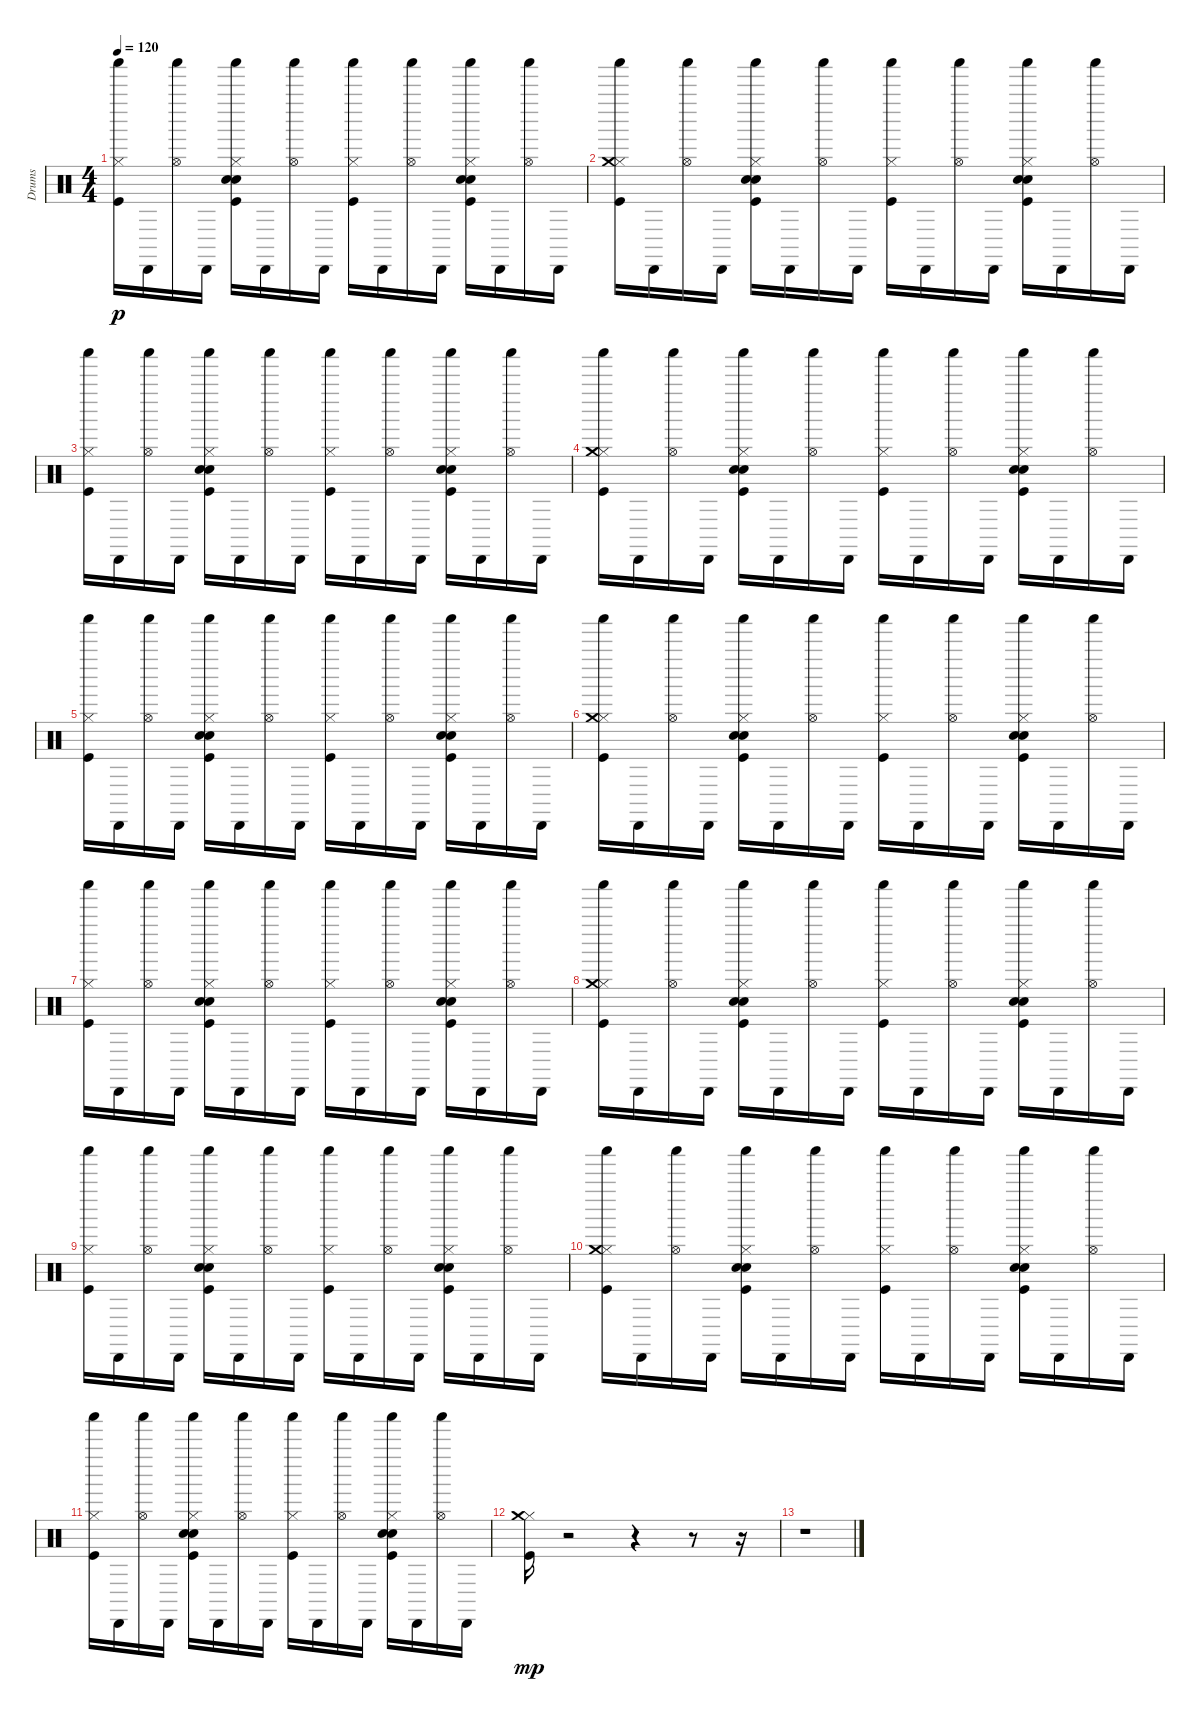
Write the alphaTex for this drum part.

\track ("Drums" "Drums") {instrument percussion}
\staff {score}
\articulation defaults
\ts (4 4)
\tempo 120
\clef neutral
\ks c
("Kick (hit)" "Hi-Hat (closed)" "Shaker (hit)").16{dy p} "Cabasa (hit)".16 ("Hi-Hat (open)" "Shaker (hit)").16 "Cabasa (hit)".16 ("Kick (hit)" "Snare (hit) 2" "Electric Snare (hit)" "Hi-Hat (closed)" "Shaker (hit)").16 "Cabasa (hit)".16 ("Hi-Hat (open)" "Shaker (hit)").16 "Cabasa (hit)".16 ("Kick (hit)" "Hi-Hat (closed)" "Shaker (hit)").16 "Cabasa (hit)".16 ("Hi-Hat (open)" "Shaker (hit)").16 "Cabasa (hit)".16 ("Kick (hit)" "Snare (hit) 2" "Electric Snare (hit)" "Hi-Hat (closed)" "Shaker (hit)").16 "Cabasa (hit)".16 ("Hi-Hat (open)" "Shaker (hit)").16 "Cabasa (hit)".16 |
("Kick (hit)" "Hi-Hat (closed)" "Crash medium (hit)" "Shaker (hit)").16 "Cabasa (hit)".16 ("Hi-Hat (open)" "Shaker (hit)").16 "Cabasa (hit)".16 ("Kick (hit)" "Snare (hit) 2" "Electric Snare (hit)" "Hi-Hat (closed)" "Shaker (hit)").16 "Cabasa (hit)".16 ("Hi-Hat (open)" "Shaker (hit)").16 "Cabasa (hit)".16 ("Kick (hit)" "Hi-Hat (closed)" "Shaker (hit)").16 "Cabasa (hit)".16 ("Hi-Hat (open)" "Shaker (hit)").16 "Cabasa (hit)".16 ("Kick (hit)" "Snare (hit) 2" "Electric Snare (hit)" "Hi-Hat (closed)" "Shaker (hit)").16 "Cabasa (hit)".16 ("Hi-Hat (open)" "Shaker (hit)").16 "Cabasa (hit)".16 |
("Kick (hit)" "Hi-Hat (closed)" "Shaker (hit)").16 "Cabasa (hit)".16 ("Hi-Hat (open)" "Shaker (hit)").16 "Cabasa (hit)".16 ("Kick (hit)" "Snare (hit) 2" "Electric Snare (hit)" "Hi-Hat (closed)" "Shaker (hit)").16 "Cabasa (hit)".16 ("Hi-Hat (open)" "Shaker (hit)").16 "Cabasa (hit)".16 ("Kick (hit)" "Hi-Hat (closed)" "Shaker (hit)").16 "Cabasa (hit)".16 ("Hi-Hat (open)" "Shaker (hit)").16 "Cabasa (hit)".16 ("Kick (hit)" "Snare (hit) 2" "Electric Snare (hit)" "Hi-Hat (closed)" "Shaker (hit)").16 "Cabasa (hit)".16 ("Hi-Hat (open)" "Shaker (hit)").16 "Cabasa (hit)".16 |
("Kick (hit)" "Hi-Hat (closed)" "Crash medium (hit)" "Shaker (hit)").16 "Cabasa (hit)".16 ("Hi-Hat (open)" "Shaker (hit)").16 "Cabasa (hit)".16 ("Kick (hit)" "Snare (hit) 2" "Electric Snare (hit)" "Hi-Hat (closed)" "Shaker (hit)").16 "Cabasa (hit)".16 ("Hi-Hat (open)" "Shaker (hit)").16 "Cabasa (hit)".16 ("Kick (hit)" "Hi-Hat (closed)" "Shaker (hit)").16 "Cabasa (hit)".16 ("Hi-Hat (open)" "Shaker (hit)").16 "Cabasa (hit)".16 ("Kick (hit)" "Snare (hit) 2" "Electric Snare (hit)" "Hi-Hat (closed)" "Shaker (hit)").16 "Cabasa (hit)".16 ("Hi-Hat (open)" "Shaker (hit)").16 "Cabasa (hit)".16 |
("Kick (hit)" "Hi-Hat (closed)" "Shaker (hit)").16 "Cabasa (hit)".16 ("Hi-Hat (open)" "Shaker (hit)").16 "Cabasa (hit)".16 ("Kick (hit)" "Snare (hit) 2" "Electric Snare (hit)" "Hi-Hat (closed)" "Shaker (hit)").16 "Cabasa (hit)".16 ("Hi-Hat (open)" "Shaker (hit)").16 "Cabasa (hit)".16 ("Kick (hit)" "Hi-Hat (closed)" "Shaker (hit)").16 "Cabasa (hit)".16 ("Hi-Hat (open)" "Shaker (hit)").16 "Cabasa (hit)".16 ("Kick (hit)" "Snare (hit) 2" "Electric Snare (hit)" "Hi-Hat (closed)" "Shaker (hit)").16 "Cabasa (hit)".16 ("Hi-Hat (open)" "Shaker (hit)").16 "Cabasa (hit)".16 |
("Kick (hit)" "Hi-Hat (closed)" "Crash medium (hit)" "Shaker (hit)").16 "Cabasa (hit)".16 ("Hi-Hat (open)" "Shaker (hit)").16 "Cabasa (hit)".16 ("Kick (hit)" "Snare (hit) 2" "Electric Snare (hit)" "Hi-Hat (closed)" "Shaker (hit)").16 "Cabasa (hit)".16 ("Hi-Hat (open)" "Shaker (hit)").16 "Cabasa (hit)".16 ("Kick (hit)" "Hi-Hat (closed)" "Shaker (hit)").16 "Cabasa (hit)".16 ("Hi-Hat (open)" "Shaker (hit)").16 "Cabasa (hit)".16 ("Kick (hit)" "Snare (hit) 2" "Electric Snare (hit)" "Hi-Hat (closed)" "Shaker (hit)").16 "Cabasa (hit)".16 ("Hi-Hat (open)" "Shaker (hit)").16 "Cabasa (hit)".16 |
("Kick (hit)" "Hi-Hat (closed)" "Shaker (hit)").16 "Cabasa (hit)".16 ("Hi-Hat (open)" "Shaker (hit)").16 "Cabasa (hit)".16 ("Kick (hit)" "Snare (hit) 2" "Electric Snare (hit)" "Hi-Hat (closed)" "Shaker (hit)").16 "Cabasa (hit)".16 ("Hi-Hat (open)" "Shaker (hit)").16 "Cabasa (hit)".16 ("Kick (hit)" "Hi-Hat (closed)" "Shaker (hit)").16 "Cabasa (hit)".16 ("Hi-Hat (open)" "Shaker (hit)").16 "Cabasa (hit)".16 ("Kick (hit)" "Snare (hit) 2" "Electric Snare (hit)" "Hi-Hat (closed)" "Shaker (hit)").16 "Cabasa (hit)".16 ("Hi-Hat (open)" "Shaker (hit)").16 "Cabasa (hit)".16 |
("Kick (hit)" "Hi-Hat (closed)" "Crash medium (hit)" "Shaker (hit)").16 "Cabasa (hit)".16 ("Hi-Hat (open)" "Shaker (hit)").16 "Cabasa (hit)".16 ("Kick (hit)" "Snare (hit) 2" "Electric Snare (hit)" "Hi-Hat (closed)" "Shaker (hit)").16 "Cabasa (hit)".16 ("Hi-Hat (open)" "Shaker (hit)").16 "Cabasa (hit)".16 ("Kick (hit)" "Hi-Hat (closed)" "Shaker (hit)").16 "Cabasa (hit)".16 ("Hi-Hat (open)" "Shaker (hit)").16 "Cabasa (hit)".16 ("Kick (hit)" "Snare (hit) 2" "Electric Snare (hit)" "Hi-Hat (closed)" "Shaker (hit)").16 "Cabasa (hit)".16 ("Hi-Hat (open)" "Shaker (hit)").16 "Cabasa (hit)".16 |
("Kick (hit)" "Hi-Hat (closed)" "Shaker (hit)").16 "Cabasa (hit)".16 ("Hi-Hat (open)" "Shaker (hit)").16 "Cabasa (hit)".16 ("Kick (hit)" "Snare (hit) 2" "Electric Snare (hit)" "Hi-Hat (closed)" "Shaker (hit)").16 "Cabasa (hit)".16 ("Hi-Hat (open)" "Shaker (hit)").16 "Cabasa (hit)".16 ("Kick (hit)" "Hi-Hat (closed)" "Shaker (hit)").16 "Cabasa (hit)".16 ("Hi-Hat (open)" "Shaker (hit)").16 "Cabasa (hit)".16 ("Kick (hit)" "Snare (hit) 2" "Electric Snare (hit)" "Hi-Hat (closed)" "Shaker (hit)").16 "Cabasa (hit)".16 ("Hi-Hat (open)" "Shaker (hit)").16 "Cabasa (hit)".16 |
("Kick (hit)" "Hi-Hat (closed)" "Crash medium (hit)" "Shaker (hit)").16 "Cabasa (hit)".16 ("Hi-Hat (open)" "Shaker (hit)").16 "Cabasa (hit)".16 ("Kick (hit)" "Snare (hit) 2" "Electric Snare (hit)" "Hi-Hat (closed)" "Shaker (hit)").16 "Cabasa (hit)".16 ("Hi-Hat (open)" "Shaker (hit)").16 "Cabasa (hit)".16 ("Kick (hit)" "Hi-Hat (closed)" "Shaker (hit)").16 "Cabasa (hit)".16 ("Hi-Hat (open)" "Shaker (hit)").16 "Cabasa (hit)".16 ("Kick (hit)" "Snare (hit) 2" "Electric Snare (hit)" "Hi-Hat (closed)" "Shaker (hit)").16 "Cabasa (hit)".16 ("Hi-Hat (open)" "Shaker (hit)").16 "Cabasa (hit)".16 |
("Kick (hit)" "Hi-Hat (closed)" "Shaker (hit)").16 "Cabasa (hit)".16 ("Hi-Hat (open)" "Shaker (hit)").16 "Cabasa (hit)".16 ("Kick (hit)" "Snare (hit) 2" "Electric Snare (hit)" "Hi-Hat (closed)" "Shaker (hit)").16 "Cabasa (hit)".16 ("Hi-Hat (open)" "Shaker (hit)").16 "Cabasa (hit)".16 ("Kick (hit)" "Hi-Hat (closed)" "Shaker (hit)").16 "Cabasa (hit)".16 ("Hi-Hat (open)" "Shaker (hit)").16 "Cabasa (hit)".16 ("Kick (hit)" "Snare (hit) 2" "Electric Snare (hit)" "Hi-Hat (closed)" "Shaker (hit)").16 "Cabasa (hit)".16 ("Hi-Hat (open)" "Shaker (hit)").16 "Cabasa (hit)".16 |
("Kick (hit)" "Hi-Hat (closed)" "Crash medium (hit)").16{dy mp} r.2 r.4 r.8 r.16 |
r.1
